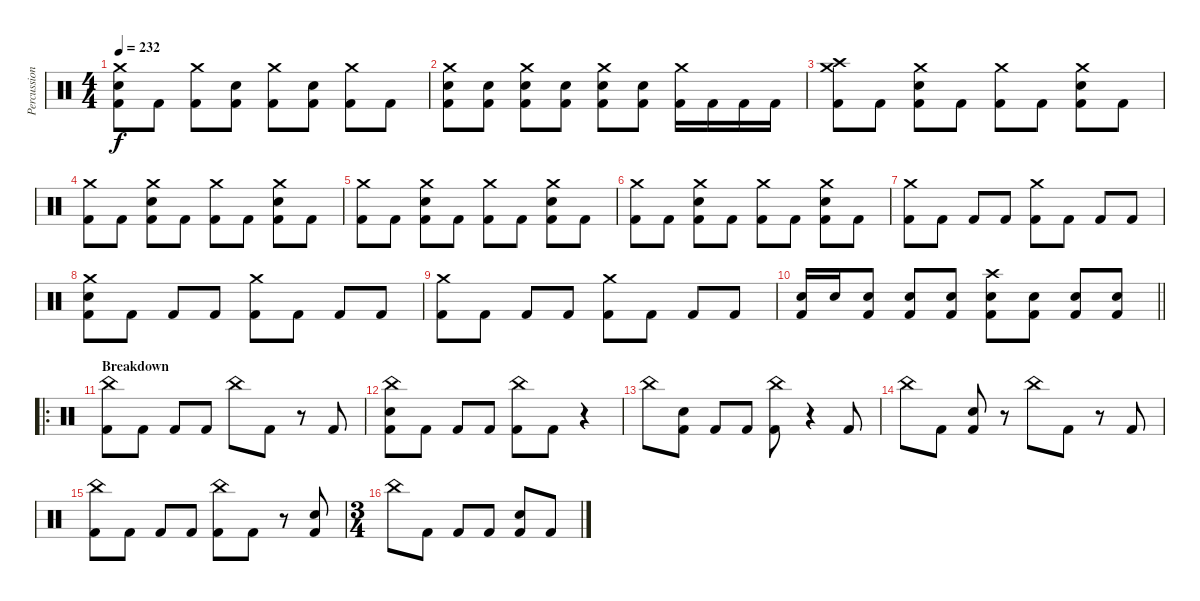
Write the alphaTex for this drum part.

\track ("Percussion" "Percussion") {instrument percussion}
\staff {score}
\articulation defaults
\ts (4 4)
\tempo 232
\clef neutral
\ks c
("Crash medium (hit)" "Electric Snare (hit)" "Kick (hit) 2").8{dy f} "Kick (hit) 2".8 ("Crash medium (hit)" "Kick (hit) 2").8 ("Electric Snare (hit)" "Kick (hit) 2").8 ("Crash medium (hit)" "Kick (hit) 2").8 ("Electric Snare (hit)" "Kick (hit) 2").8 ("Crash medium (hit)" "Kick (hit) 2").8 "Kick (hit) 2".8 |
("Crash medium (hit)" "Electric Snare (hit)" "Kick (hit) 2").8 ("Electric Snare (hit)" "Kick (hit) 2").8 ("Crash medium (hit)" "Electric Snare (hit)" "Kick (hit) 2").8 ("Electric Snare (hit)" "Kick (hit) 2").8 ("Crash medium (hit)" "Electric Snare (hit)" "Kick (hit) 2").8 ("Electric Snare (hit)" "Kick (hit) 2").8 ("Crash medium (hit)" "Kick (hit) 2").16 "Kick (hit) 2".16 "Kick (hit) 2".16 "Kick (hit) 2".16 |
("Crash medium (hit)" "Crash high (hit)" "Kick (hit) 2").8 "Kick (hit) 2".8 ("Crash medium (hit)" "Electric Snare (hit)" "Kick (hit) 2").8 "Kick (hit) 2".8 ("Crash medium (hit)" "Kick (hit) 2").8 "Kick (hit) 2".8 ("Crash medium (hit)" "Electric Snare (hit)" "Kick (hit) 2").8 "Kick (hit) 2".8 |
("Crash medium (hit)" "Kick (hit) 2").8 "Kick (hit) 2".8 ("Crash medium (hit)" "Electric Snare (hit)" "Kick (hit) 2").8 "Kick (hit) 2".8 ("Crash medium (hit)" "Kick (hit) 2").8 "Kick (hit) 2".8 ("Crash medium (hit)" "Electric Snare (hit)" "Kick (hit) 2").8 "Kick (hit) 2".8 |
("Crash medium (hit)" "Kick (hit) 2").8 "Kick (hit) 2".8 ("Crash medium (hit)" "Electric Snare (hit)" "Kick (hit) 2").8 "Kick (hit) 2".8 ("Crash medium (hit)" "Kick (hit) 2").8 "Kick (hit) 2".8 ("Crash medium (hit)" "Electric Snare (hit)" "Kick (hit) 2").8 "Kick (hit) 2".8 |
("Crash medium (hit)" "Kick (hit) 2").8 "Kick (hit) 2".8 ("Crash medium (hit)" "Electric Snare (hit)" "Kick (hit) 2").8 "Kick (hit) 2".8 ("Crash medium (hit)" "Kick (hit) 2").8 "Kick (hit) 2".8 ("Crash medium (hit)" "Electric Snare (hit)" "Kick (hit) 2").8 "Kick (hit) 2".8 |
("Crash medium (hit)" "Kick (hit) 2").8 "Kick (hit) 2".8 "Kick (hit) 2".8 "Kick (hit) 2".8 ("Crash medium (hit)" "Kick (hit) 2").8 "Kick (hit) 2".8 "Kick (hit) 2".8 "Kick (hit) 2".8 |
("Crash medium (hit)" "Electric Snare (hit)" "Kick (hit) 2").8 "Kick (hit) 2".8 "Kick (hit) 2".8 "Kick (hit) 2".8 ("Crash medium (hit)" "Kick (hit) 2").8 "Kick (hit) 2".8 "Kick (hit) 2".8 "Kick (hit) 2".8 |
("Crash medium (hit)" "Kick (hit) 2").8 "Kick (hit) 2".8 "Kick (hit) 2".8 "Kick (hit) 2".8 ("Crash medium (hit)" "Kick (hit) 2").8 "Kick (hit) 2".8 "Kick (hit) 2".8 "Kick (hit) 2".8 |
\barLineRight lightlight
("Electric Snare (hit)" "Kick (hit) 2").16 "Electric Snare (hit)".16 ("Electric Snare (hit)" "Kick (hit) 2").8 ("Electric Snare (hit)" "Kick (hit) 2").8 ("Electric Snare (hit)" "Kick (hit) 2").8 ("Crash high (hit)" "Electric Snare (hit)" "Kick (hit) 2").8 ("Electric Snare (hit)" "Kick (hit) 2").8 ("Electric Snare (hit)" "Kick (hit) 2").8 ("Electric Snare (hit)" "Kick (hit) 2").8 |
\ro
\section ("" "Breakdown")
("China (hit)" "Kick (hit) 2").8 "Kick (hit) 2".8 "Kick (hit) 2".8 "Kick (hit) 2".8 "China (hit)".8 "Kick (hit) 2".8 r.8 "Kick (hit) 2".8 |
("China (hit)" "Electric Snare (hit)" "Kick (hit) 2").8 "Kick (hit) 2".8 "Kick (hit) 2".8 "Kick (hit) 2".8 ("China (hit)" "Kick (hit) 2").8 "Kick (hit) 2".8 r.4 |
"China (hit)".8 ("Electric Snare (hit)" "Kick (hit) 2").8 "Kick (hit) 2".8 "Kick (hit) 2".8 ("China (hit)" "Kick (hit) 2").8 r.4 "Kick (hit) 2".8 |
"China (hit)".8 "Kick (hit) 2".8 ("Electric Snare (hit)" "Kick (hit) 2").8 r.8 "China (hit)".8 "Kick (hit) 2".8 r.8 "Kick (hit) 2".8 |
("China (hit)" "Kick (hit) 2").8 "Kick (hit) 2".8 "Kick (hit) 2".8 "Kick (hit) 2".8 ("China (hit)" "Kick (hit) 2").8 "Kick (hit) 2".8 r.8 ("Electric Snare (hit)" "Kick (hit) 2").8 |
\ts (3 4)
"China (hit)".8 "Kick (hit) 2".8 "Kick (hit) 2".8 "Kick (hit) 2".8 ("Electric Snare (hit)" "Kick (hit) 2").8 "Kick (hit) 2".8
